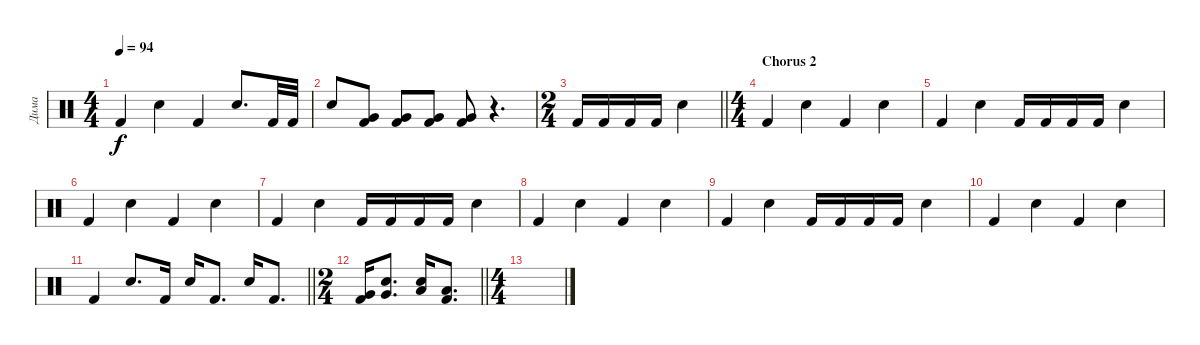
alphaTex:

\track ("Дима" "Дима") {instrument percussion}
\staff {score}
\articulation defaults
\ts (4 4)
\tempo 94
\clef neutral
\ks c "Kick (hit) 2".4{dy f} "Snare (hit) 2".4 "Kick (hit) 2".4 "Snare (hit) 2".8{d} "Kick (hit) 2".32 "Kick (hit) 2".32
|
"Snare (hit) 2".8 ("Kick (hit) 2" "Very Low Tom (hit)").8 ("Kick (hit) 2" "Very Low Tom (hit)").8 ("Kick (hit) 2" "Very Low Tom (hit)").8 ("Kick (hit) 2" "Very Low Tom (hit)").8 r.4{d} |
\ts (2 4)
\barLineRight lightlight "Kick (hit) 2".16 "Kick (hit) 2".16 "Kick (hit) 2".16 "Kick (hit) 2".16 "Snare (hit) 2".4
|
\ts (4 4)
\section ("" "Chorus 2")
"Kick (hit) 2".4 "Snare (hit) 2".4 "Kick (hit) 2".4 "Snare (hit) 2".4 |
"Kick (hit) 2".4 "Snare (hit) 2".4 "Kick (hit) 2".16 "Kick (hit) 2".16 "Kick (hit) 2".16 "Kick (hit) 2".16 "Snare (hit) 2".4 |
"Kick (hit) 2".4 "Snare (hit) 2".4 "Kick (hit) 2".4 "Snare (hit) 2".4 |
"Kick (hit) 2".4 "Snare (hit) 2".4 "Kick (hit) 2".16 "Kick (hit) 2".16 "Kick (hit) 2".16 "Kick (hit) 2".16 "Snare (hit) 2".4 |
"Kick (hit) 2".4 "Snare (hit) 2".4 "Kick (hit) 2".4 "Snare (hit) 2".4 |
"Kick (hit) 2".4 "Snare (hit) 2".4 "Kick (hit) 2".16 "Kick (hit) 2".16 "Kick (hit) 2".16 "Kick (hit) 2".16 "Snare (hit) 2".4 |
"Kick (hit) 2".4 "Snare (hit) 2".4 "Kick (hit) 2".4 "Snare (hit) 2".4 |
\barLineRight lightlight "Kick (hit) 2".4 "Snare (hit) 2".8{d} "Kick (hit) 2".16 "Snare (hit) 2".16 "Kick (hit) 2".8{d} "Snare (hit) 2".16 "Kick (hit) 2".8{d}
|
\ts (2 4)
\barLineRight lightlight
("Kick (hit) 2" "Very Low Tom (hit)").16 ("Snare (hit) 2" "Very Low Tom (hit)").8{d} ("Snare (hit) 2" "Low Floor Tom (hit)").16 ("Kick (hit) 2" "Low Floor Tom (hit)").8{d} |
\ts (4 4)
